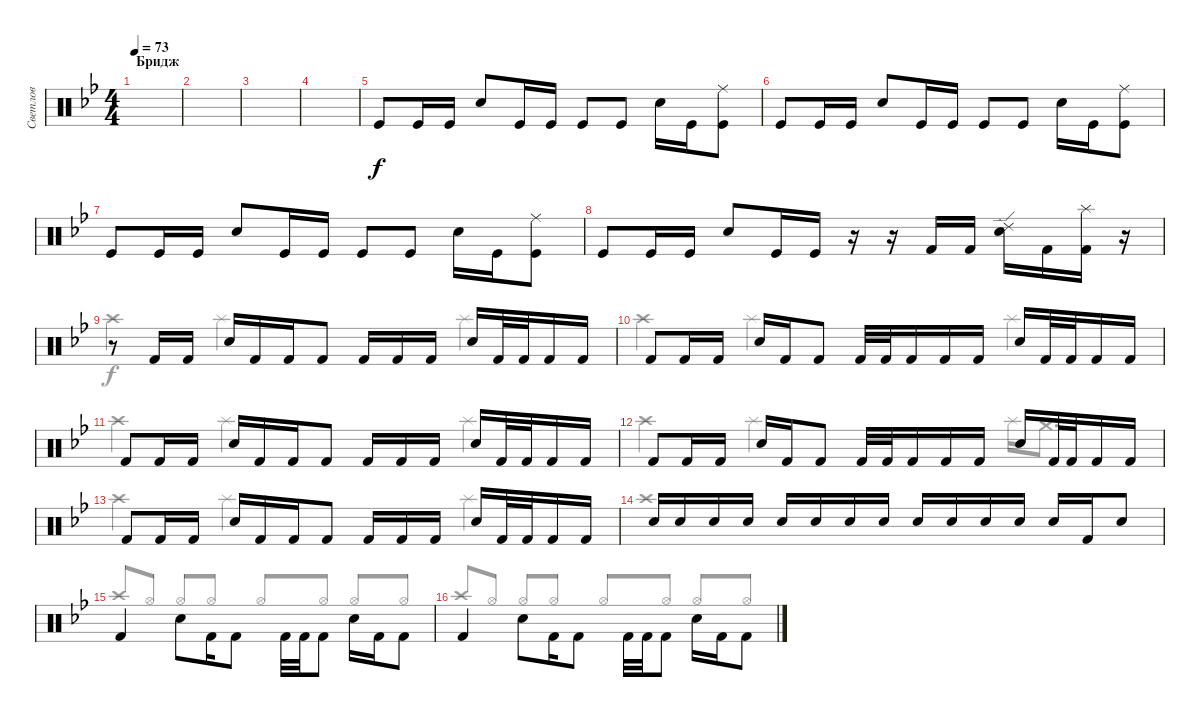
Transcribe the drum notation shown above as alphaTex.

\track ("Светлов" "Светлов") {instrument percussion}
\staff {score}
\articulation defaults
\voice
\ts (4 4)
\section ("" "Бридж")
\tempo 73
\clef neutral
\ks gminor
|
|
|
|
"Kick (hit)".8 "Kick (hit)".16 "Kick (hit)".16 "Snare (hit) 2".8 "Kick (hit)".16 "Kick (hit)".16 "Kick (hit)".8 "Kick (hit)".8 "Snare (hit) 2".16 "Kick (hit)".16 ("Ride (middle)" "Kick (hit)").8 |
"Kick (hit)".8 "Kick (hit)".16 "Kick (hit)".16 "Snare (hit) 2".8 "Kick (hit)".16 "Kick (hit)".16 "Kick (hit)".8 "Kick (hit)".8 "Snare (hit) 2".16 "Kick (hit)".16 ("Ride (middle)" "Kick (hit)").8 |
"Kick (hit)".8 "Kick (hit)".16 "Kick (hit)".16 "Snare (hit) 2".8 "Kick (hit)".16 "Kick (hit)".16 "Kick (hit)".8 "Kick (hit)".8 "Snare (hit) 2".16 "Kick (hit)".16 ("Ride (middle)" "Kick (hit)").8 |
"Kick (hit)".8 "Kick (hit)".16 "Kick (hit)".16 "Snare (hit) 2".8 "Kick (hit)".16 "Kick (hit)".16 r.16 r.16 "Kick (hit) 2".16 "Kick (hit) 2".16 ("Ride (edge) 2" "Electric Snare (hit)").16 "Kick (hit) 2".16 ("Splash (hit)" "Kick (hit) 2").16 r.16 |
r.8 "Kick (hit) 2".16 "Kick (hit) 2".16 "Electric Snare (hit)".16 "Kick (hit) 2".16 "Kick (hit) 2".16 "Kick (hit) 2".8 "Kick (hit) 2".16 "Kick (hit) 2".16 "Kick (hit) 2".16 "Electric Snare (hit)".16 "Kick (hit) 2".32 "Kick (hit) 2".32 "Kick (hit) 2".16 "Kick (hit) 2".16 |
"Kick (hit) 2".8 "Kick (hit) 2".16 "Kick (hit) 2".16 "Electric Snare (hit)".16 "Kick (hit) 2".16 "Kick (hit) 2".8 "Kick (hit) 2".32 "Kick (hit) 2".32 "Kick (hit) 2".16 "Kick (hit) 2".16 "Kick (hit) 2".16 "Electric Snare (hit)".16 "Kick (hit) 2".32 "Kick (hit) 2".32 "Kick (hit) 2".16 "Kick (hit) 2".16 |
"Kick (hit) 2".8 "Kick (hit) 2".16 "Kick (hit) 2".16 "Electric Snare (hit)".16 "Kick (hit) 2".16 "Kick (hit) 2".16 "Kick (hit) 2".8 "Kick (hit) 2".16 "Kick (hit) 2".16 "Kick (hit) 2".16 "Electric Snare (hit)".16 "Kick (hit) 2".32 "Kick (hit) 2".32 "Kick (hit) 2".16 "Kick (hit) 2".16 |
"Kick (hit) 2".8 "Kick (hit) 2".16 "Kick (hit) 2".16 "Electric Snare (hit)".16 "Kick (hit) 2".16 "Kick (hit) 2".8 "Kick (hit) 2".32 "Kick (hit) 2".32 "Kick (hit) 2".16 "Kick (hit) 2".16 "Kick (hit) 2".16 "Electric Snare (hit)".16 "Kick (hit) 2".32 "Kick (hit) 2".32 "Kick (hit) 2".16 "Kick (hit) 2".16 |
"Kick (hit) 2".8 "Kick (hit) 2".16 "Kick (hit) 2".16 "Electric Snare (hit)".16 "Kick (hit) 2".16 "Kick (hit) 2".16 "Kick (hit) 2".8 "Kick (hit) 2".16 "Kick (hit) 2".16 "Kick (hit) 2".16 "Electric Snare (hit)".16 "Kick (hit) 2".32 "Kick (hit) 2".32 "Kick (hit) 2".16 "Kick (hit) 2".16 |
"Snare (hit) 2".16 "Snare (hit) 2".16{volume 11} "Snare (hit) 2".16 "Snare (hit) 2".16 "Snare (hit) 2".16 "Snare (hit) 2".16 "Snare (hit) 2".16 "Snare (hit) 2".16 "Snare (hit) 2".16 "Snare (hit) 2".16 "Snare (hit) 2".16 "Snare (hit) 2".16 "Snare (hit) 2".16 "Kick (hit) 2".16 "Electric Snare (hit)".8 |
"Kick (hit) 2".4{beam Up} "Electric Snare (hit)".8{beam Down} "Kick (hit) 2".16{beam Down} "Kick (hit) 2".8{beam Down} "Kick (hit) 2".32{beam Down} "Kick (hit) 2".32{beam Down} "Kick (hit) 2".8{beam Down} "Electric Snare (hit)".16{beam Down} "Kick (hit) 2".16{beam Down} "Kick (hit) 2".8{beam Down} |
"Kick (hit) 2".4{beam Up} "Electric Snare (hit)".8{beam Down} "Kick (hit) 2".16{beam Down} "Kick (hit) 2".8{beam Down} "Kick (hit) 2".32{beam Down} "Kick (hit) 2".32{beam Down} "Kick (hit) 2".8{beam Down} "Electric Snare (hit)".16{beam Down} "Kick (hit) 2".16{beam Down} "Kick (hit) 2".8{beam Down}
\voice
\clef neutral
\ottava regular
\simile none
\ks gminor
|
|
|
|
|
|
|
|
"Crash high (hit)".4 "Splash (hit)".2 "Splash (hit)".4 |
"Crash high (hit)".4 "Splash (hit)".2 "Splash (hit)".4 |
"Crash high (hit)".4 "Splash (hit)".2 "Splash (hit)".4 |
"Crash high (hit)".4 "Splash (hit)".2 "Splash (hit)".16 "Crash medium (hit)".8{d} |
"Crash high (hit)".4 "Splash (hit)".2 "Splash (hit)".4 |
"Crash high (hit)".1 |
"Crash high (hit)".8{beam Up} "Hi-Hat (open)".8{beam Up} "Hi-Hat (open)".8{beam Up} "Hi-Hat (open)".8{beam Up} "Hi-Hat (open)".8{beam Up} "Hi-Hat (open)".8{beam Up} "Hi-Hat (open)".8{beam Up} "Hi-Hat (open)".8{beam Up} |
"Crash high (hit)".8{beam Up} "Hi-Hat (open)".8{beam Up} "Hi-Hat (open)".8{beam Up} "Hi-Hat (open)".8{beam Up} "Hi-Hat (open)".8{beam Up} "Hi-Hat (open)".8{beam Up} "Hi-Hat (open)".8{beam Up} "Hi-Hat (open)".8{beam Up}
